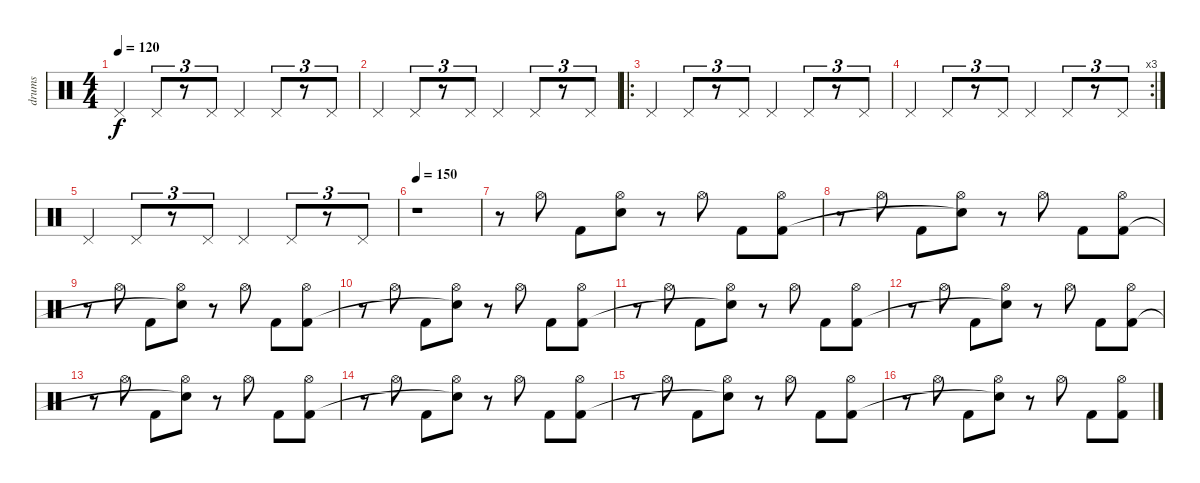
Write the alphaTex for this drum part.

\track ("drums" "drums") {instrument percussion}
\staff {score}
\articulation defaults
\ts (4 4)
\tempo 120
\clef neutral
\ks c "Pedal Hi-Hat (hit)".4{dy f} "Pedal Hi-Hat (hit)".8{tu (3 2)}
r.8{tu (3 2)} "Pedal Hi-Hat (hit)".8{tu (3 2)} "Pedal Hi-Hat (hit)".4 "Pedal Hi-Hat (hit)".8{tu (3 2)} r.8{tu (3 2)} "Pedal Hi-Hat (hit)".8{tu (3 2)} |
"Pedal Hi-Hat (hit)".4 "Pedal Hi-Hat (hit)".8{tu (3 2)} r.8{tu (3 2)} "Pedal Hi-Hat (hit)".8{tu (3 2)} "Pedal Hi-Hat (hit)".4 "Pedal Hi-Hat (hit)".8{tu (3 2)} r.8{tu (3 2)} "Pedal Hi-Hat (hit)".8{tu (3 2)} |
\ro "Pedal Hi-Hat (hit)".4 "Pedal Hi-Hat (hit)".8{tu (3 2)}
r.8{tu (3 2)} "Pedal Hi-Hat (hit)".8{tu (3 2)} "Pedal Hi-Hat (hit)".4 "Pedal Hi-Hat (hit)".8{tu (3 2)} r.8{tu (3 2)} "Pedal Hi-Hat (hit)".8{tu (3 2)} |
\rc 3 "Pedal Hi-Hat (hit)".4 "Pedal Hi-Hat (hit)".8{tu (3 2)}
r.8{tu (3 2)} "Pedal Hi-Hat (hit)".8{tu (3 2)} "Pedal Hi-Hat (hit)".4 "Pedal Hi-Hat (hit)".8{tu (3 2)} r.8{tu (3 2)} "Pedal Hi-Hat (hit)".8{tu (3 2)} |
"Pedal Hi-Hat (hit)".4 "Pedal Hi-Hat (hit)".8{tu (3 2)} r.8{tu (3 2)} "Pedal Hi-Hat (hit)".8{tu (3 2)} "Pedal Hi-Hat (hit)".4 "Pedal Hi-Hat (hit)".8{tu (3 2)} r.8{tu (3 2)} "Pedal Hi-Hat (hit)".8{tu (3 2)} |
\tempo 150
r.1 |
r.8 "Hi-Hat (open)".8 "Kick (hit) 2".8 ("Hi-Hat (open)" "Snare (hit)").8 r.8 "Hi-Hat (open)".8 "Kick (hit) 2".8 ("Hi-Hat (open)" "Kick (hit) 2").8 |
r.8 "Hi-Hat (open)".8 "Kick (hit) 2".8 ("Hi-Hat (open)" "Snare (hit)"{t}).8 r.8 "Hi-Hat (open)".8 "Kick (hit) 2".8 ("Hi-Hat (open)" "Kick (hit) 2").8 |
r.8 "Hi-Hat (open)".8 "Kick (hit) 2".8 ("Hi-Hat (open)" "Snare (hit)"{t}).8 r.8 "Hi-Hat (open)".8 "Kick (hit) 2".8 ("Hi-Hat (open)" "Kick (hit) 2").8 |
r.8 "Hi-Hat (open)".8 "Kick (hit) 2".8 ("Hi-Hat (open)" "Snare (hit)"{t}).8 r.8 "Hi-Hat (open)".8 "Kick (hit) 2".8 ("Hi-Hat (open)" "Kick (hit) 2").8 |
r.8 "Hi-Hat (open)".8 "Kick (hit) 2".8 ("Hi-Hat (open)" "Snare (hit)"{t}).8 r.8 "Hi-Hat (open)".8 "Kick (hit) 2".8 ("Hi-Hat (open)" "Kick (hit) 2").8 |
r.8 "Hi-Hat (open)".8 "Kick (hit) 2".8 ("Hi-Hat (open)" "Snare (hit)"{t}).8 r.8 "Hi-Hat (open)".8 "Kick (hit) 2".8 ("Hi-Hat (open)" "Kick (hit) 2").8 |
r.8 "Hi-Hat (open)".8 "Kick (hit) 2".8 ("Hi-Hat (open)" "Snare (hit)"{t}).8 r.8 "Hi-Hat (open)".8 "Kick (hit) 2".8 ("Hi-Hat (open)" "Kick (hit) 2").8 |
r.8 "Hi-Hat (open)".8 "Kick (hit) 2".8 ("Hi-Hat (open)" "Snare (hit)"{t}).8 r.8 "Hi-Hat (open)".8 "Kick (hit) 2".8 ("Hi-Hat (open)" "Kick (hit) 2").8 |
r.8 "Hi-Hat (open)".8 "Kick (hit) 2".8 ("Hi-Hat (open)" "Snare (hit)"{t}).8 r.8 "Hi-Hat (open)".8 "Kick (hit) 2".8 ("Hi-Hat (open)" "Kick (hit) 2").8 |
r.8 "Hi-Hat (open)".8 "Kick (hit) 2".8 ("Hi-Hat (open)" "Snare (hit)"{t}).8 r.8 "Hi-Hat (open)".8 "Kick (hit) 2".8 ("Hi-Hat (open)" "Kick (hit) 2").8
